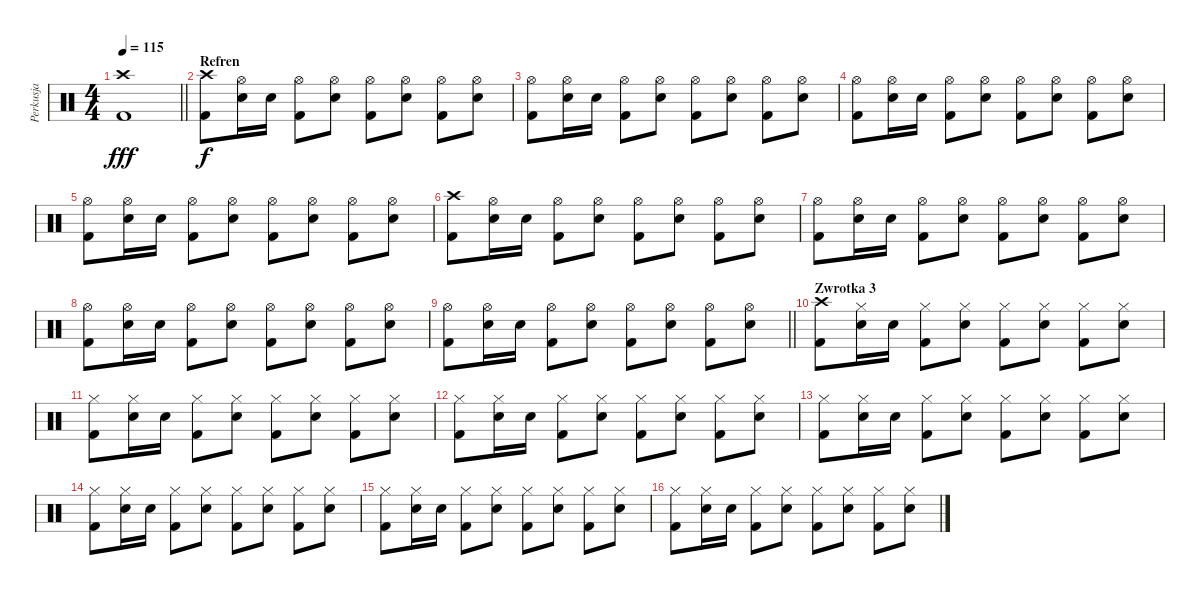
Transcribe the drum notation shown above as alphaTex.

\track ("Perkusja" "Perkusja") {instrument percussion}
\staff {score}
\articulation defaults
\ts (4 4)
\tempo 115
\clef neutral
\barLineRight lightlight
\ks c
("Crash high (hit)" "Kick (hit) 2").1{dy fff} |
\section ("" "Refren")
("Crash high (hit)" "Kick (hit) 2").8{dy f} ("Hi-Hat (open)" "Snare (hit) 2").16 "Snare (hit) 2".16 ("Hi-Hat (open)" "Kick (hit) 2").8 ("Hi-Hat (open)" "Snare (hit) 2").8 ("Hi-Hat (open)" "Kick (hit) 2").8 ("Hi-Hat (open)" "Snare (hit) 2").8 ("Hi-Hat (open)" "Kick (hit) 2").8 ("Hi-Hat (open)" "Snare (hit) 2").8 |
("Hi-Hat (open)" "Kick (hit) 2").8 ("Hi-Hat (open)" "Snare (hit) 2").16 "Snare (hit) 2".16 ("Hi-Hat (open)" "Kick (hit) 2").8 ("Hi-Hat (open)" "Snare (hit) 2").8 ("Hi-Hat (open)" "Kick (hit) 2").8 ("Hi-Hat (open)" "Snare (hit) 2").8 ("Hi-Hat (open)" "Kick (hit) 2").8 ("Hi-Hat (open)" "Snare (hit) 2").8 |
("Hi-Hat (open)" "Kick (hit) 2").8 ("Hi-Hat (open)" "Snare (hit) 2").16 "Snare (hit) 2".16 ("Hi-Hat (open)" "Kick (hit) 2").8 ("Hi-Hat (open)" "Snare (hit) 2").8 ("Hi-Hat (open)" "Kick (hit) 2").8 ("Hi-Hat (open)" "Snare (hit) 2").8 ("Hi-Hat (open)" "Kick (hit) 2").8 ("Hi-Hat (open)" "Snare (hit) 2").8 |
("Hi-Hat (open)" "Kick (hit) 2").8 ("Hi-Hat (open)" "Snare (hit) 2").16 "Snare (hit) 2".16 ("Hi-Hat (open)" "Kick (hit) 2").8 ("Hi-Hat (open)" "Snare (hit) 2").8 ("Hi-Hat (open)" "Kick (hit) 2").8 ("Hi-Hat (open)" "Snare (hit) 2").8 ("Hi-Hat (open)" "Kick (hit) 2").8 ("Hi-Hat (open)" "Snare (hit) 2").8 |
("Crash high (hit)" "Kick (hit) 2").8 ("Hi-Hat (open)" "Snare (hit) 2").16 "Snare (hit) 2".16 ("Hi-Hat (open)" "Kick (hit) 2").8 ("Hi-Hat (open)" "Snare (hit) 2").8 ("Hi-Hat (open)" "Kick (hit) 2").8 ("Hi-Hat (open)" "Snare (hit) 2").8 ("Hi-Hat (open)" "Kick (hit) 2").8 ("Hi-Hat (open)" "Snare (hit) 2").8 |
("Hi-Hat (open)" "Kick (hit) 2").8 ("Hi-Hat (open)" "Snare (hit) 2").16 "Snare (hit) 2".16 ("Hi-Hat (open)" "Kick (hit) 2").8 ("Hi-Hat (open)" "Snare (hit) 2").8 ("Hi-Hat (open)" "Kick (hit) 2").8 ("Hi-Hat (open)" "Snare (hit) 2").8 ("Hi-Hat (open)" "Kick (hit) 2").8 ("Hi-Hat (open)" "Snare (hit) 2").8 |
("Hi-Hat (open)" "Kick (hit) 2").8 ("Hi-Hat (open)" "Snare (hit) 2").16 "Snare (hit) 2".16 ("Hi-Hat (open)" "Kick (hit) 2").8 ("Hi-Hat (open)" "Snare (hit) 2").8 ("Hi-Hat (open)" "Kick (hit) 2").8 ("Hi-Hat (open)" "Snare (hit) 2").8 ("Hi-Hat (open)" "Kick (hit) 2").8 ("Hi-Hat (open)" "Snare (hit) 2").8 |
\barLineRight lightlight
("Hi-Hat (open)" "Kick (hit) 2").8 ("Hi-Hat (open)" "Snare (hit) 2").16 "Snare (hit) 2".16 ("Hi-Hat (open)" "Kick (hit) 2").8 ("Hi-Hat (open)" "Snare (hit) 2").8 ("Hi-Hat (open)" "Kick (hit) 2").8 ("Hi-Hat (open)" "Snare (hit) 2").8 ("Hi-Hat (open)" "Kick (hit) 2").8 ("Hi-Hat (open)" "Snare (hit) 2").8 |
\section ("" "Zwrotka 3")
("Crash high (hit)" "Kick (hit) 2").8 ("Hi-Hat (closed)" "Snare (hit) 2").16 "Snare (hit) 2".16 ("Hi-Hat (closed)" "Kick (hit) 2").8 ("Hi-Hat (closed)" "Snare (hit) 2").8 ("Hi-Hat (closed)" "Kick (hit) 2").8 ("Hi-Hat (closed)" "Snare (hit) 2").8 ("Hi-Hat (closed)" "Kick (hit) 2").8 ("Hi-Hat (closed)" "Snare (hit) 2").8 |
("Hi-Hat (closed)" "Kick (hit) 2").8 ("Hi-Hat (closed)" "Snare (hit) 2").16 "Snare (hit) 2".16 ("Hi-Hat (closed)" "Kick (hit) 2").8 ("Hi-Hat (closed)" "Snare (hit) 2").8 ("Hi-Hat (closed)" "Kick (hit) 2").8 ("Hi-Hat (closed)" "Snare (hit) 2").8 ("Hi-Hat (closed)" "Kick (hit) 2").8 ("Hi-Hat (closed)" "Snare (hit) 2").8 |
("Hi-Hat (closed)" "Kick (hit) 2").8 ("Hi-Hat (closed)" "Snare (hit) 2").16 "Snare (hit) 2".16 ("Hi-Hat (closed)" "Kick (hit) 2").8 ("Hi-Hat (closed)" "Snare (hit) 2").8 ("Hi-Hat (closed)" "Kick (hit) 2").8 ("Hi-Hat (closed)" "Snare (hit) 2").8 ("Hi-Hat (closed)" "Kick (hit) 2").8 ("Hi-Hat (closed)" "Snare (hit) 2").8 |
("Hi-Hat (closed)" "Kick (hit) 2").8 ("Hi-Hat (closed)" "Snare (hit) 2").16 "Snare (hit) 2".16 ("Hi-Hat (closed)" "Kick (hit) 2").8 ("Hi-Hat (closed)" "Snare (hit) 2").8 ("Hi-Hat (closed)" "Kick (hit) 2").8 ("Hi-Hat (closed)" "Snare (hit) 2").8 ("Hi-Hat (closed)" "Kick (hit) 2").8 ("Hi-Hat (closed)" "Snare (hit) 2").8 |
("Hi-Hat (closed)" "Kick (hit) 2").8 ("Hi-Hat (closed)" "Snare (hit) 2").16 "Snare (hit) 2".16 ("Hi-Hat (closed)" "Kick (hit) 2").8 ("Hi-Hat (closed)" "Snare (hit) 2").8 ("Hi-Hat (closed)" "Kick (hit) 2").8 ("Hi-Hat (closed)" "Snare (hit) 2").8 ("Hi-Hat (closed)" "Kick (hit) 2").8 ("Hi-Hat (closed)" "Snare (hit) 2").8 |
("Hi-Hat (closed)" "Kick (hit) 2").8 ("Hi-Hat (closed)" "Snare (hit) 2").16 "Snare (hit) 2".16 ("Hi-Hat (closed)" "Kick (hit) 2").8 ("Hi-Hat (closed)" "Snare (hit) 2").8 ("Hi-Hat (closed)" "Kick (hit) 2").8 ("Hi-Hat (closed)" "Snare (hit) 2").8 ("Hi-Hat (closed)" "Kick (hit) 2").8 ("Hi-Hat (closed)" "Snare (hit) 2").8 |
("Hi-Hat (closed)" "Kick (hit) 2").8 ("Hi-Hat (closed)" "Snare (hit) 2").16 "Snare (hit) 2".16 ("Hi-Hat (closed)" "Kick (hit) 2").8 ("Hi-Hat (closed)" "Snare (hit) 2").8 ("Hi-Hat (closed)" "Kick (hit) 2").8 ("Hi-Hat (closed)" "Snare (hit) 2").8 ("Hi-Hat (closed)" "Kick (hit) 2").8 ("Hi-Hat (closed)" "Snare (hit) 2").8
